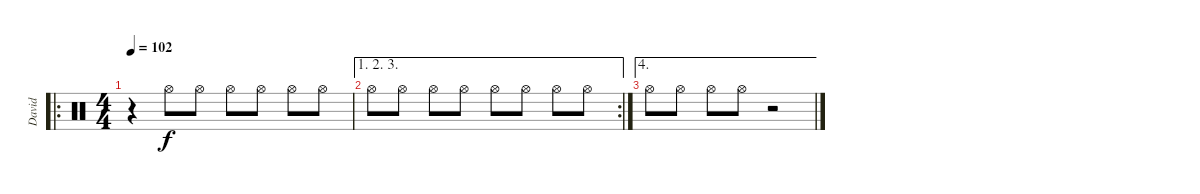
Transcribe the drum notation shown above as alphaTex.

\track ("David" "David") {instrument percussion}
\staff {score}
\articulation defaults
\ro
\ts (4 4)
\tempo 102
\clef neutral
\ks c
r.4{dy mf} "Hi-Hat (open)".8{dy f} "Hi-Hat (open)".8 "Hi-Hat (open)".8 "Hi-Hat (open)".8 "Hi-Hat (open)".8 "Hi-Hat (open)".8 |
\ae (1 2 3)
\rc 2 "Hi-Hat (open)".8 "Hi-Hat (open)".8 "Hi-Hat (open)".8 "Hi-Hat (open)".8 "Hi-Hat (open)".8 "Hi-Hat (open)".8 "Hi-Hat (open)".8 "Hi-Hat (open)".8
|
\ae 4 "Hi-Hat (open)".8 "Hi-Hat (open)".8 "Hi-Hat (open)".8 "Hi-Hat (open)".8
r.2
